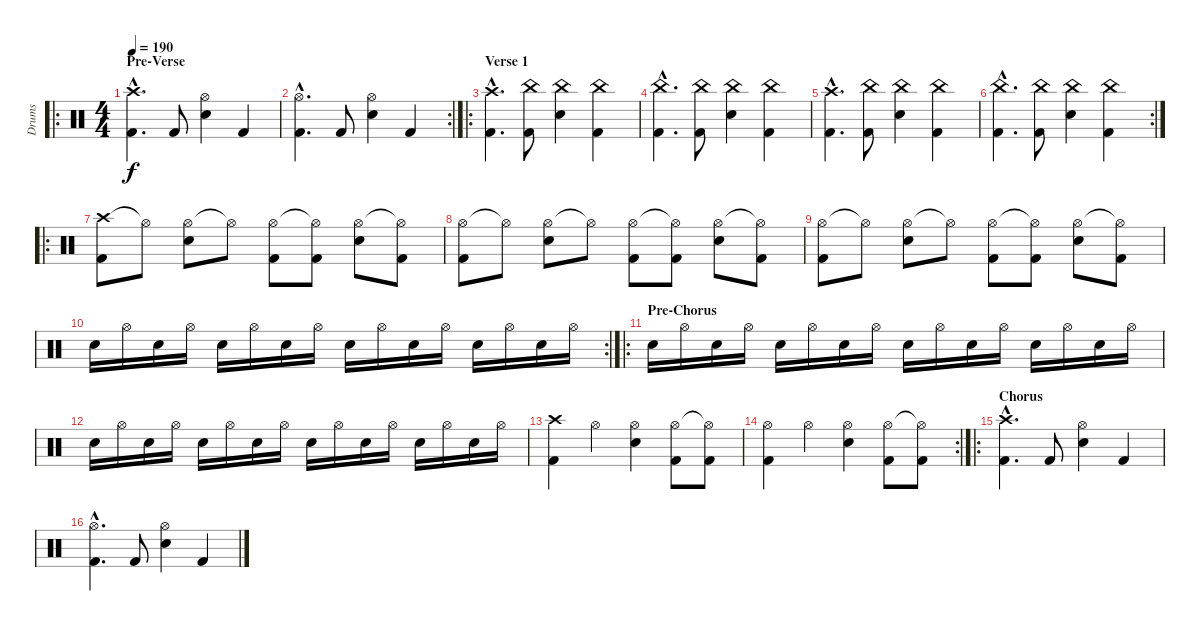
\track ("Drums" "Drums") {instrument percussion}
\staff {score}
\articulation defaults
\ro
\ts (4 4)
\section ("" "Pre-Verse")
\tempo 190
\clef neutral
\ks c
("Crash high (hit)"{hac} "Kick (hit) 2"{hac}).4{d dy f} "Kick (hit) 2".8 ("Electric Snare (hit)" "Hi-Hat (open)").4 "Kick (hit) 2".4 |
\rc 2
("Hi-Hat (open)"{hac} "Kick (hit) 2"{hac}).4{d} "Kick (hit) 2".8 ("Electric Snare (hit)" "Hi-Hat (open)").4 "Kick (hit) 2".4 |
\ro
\section ("" "Verse 1")
("Crash high (hit)"{hac} "Kick (hit) 2"{hac}).4{d} ("Kick (hit) 2" "China (hit)").8 ("Electric Snare (hit)" "China (hit)").4 ("Kick (hit) 2" "China (hit)").4 |
("China (hit)"{hac} "Kick (hit) 2"{hac}).4{d} ("Kick (hit) 2" "China (hit)").8 ("Electric Snare (hit)" "China (hit)").4 ("Kick (hit) 2" "China (hit)").4 |
("Crash high (hit)"{hac} "Kick (hit) 2"{hac}).4{d} ("Kick (hit) 2" "China (hit)").8 ("Electric Snare (hit)" "China (hit)").4 ("Kick (hit) 2" "China (hit)").4 |
\rc 2
("China (hit)"{hac} "Kick (hit) 2"{hac}).4{d} ("Kick (hit) 2" "China (hit)").8 ("Electric Snare (hit)" "China (hit)").4 ("Kick (hit) 2" "China (hit)").4 |
\ro
("Crash high (hit)" "Kick (hit) 2").8 "Hi-Hat (open)"{t}.8 ("Hi-Hat (open)" "Electric Snare (hit)").8 "Hi-Hat (open)"{t}.8 ("Hi-Hat (open)" "Kick (hit) 2").8 ("Hi-Hat (open)"{t} "Kick (hit) 2").8 ("Hi-Hat (open)" "Electric Snare (hit)").8 ("Hi-Hat (open)"{t} "Kick (hit) 2").8 |
("Hi-Hat (open)" "Kick (hit) 2").8 "Hi-Hat (open)"{t}.8 ("Hi-Hat (open)" "Electric Snare (hit)").8 "Hi-Hat (open)"{t}.8 ("Hi-Hat (open)" "Kick (hit) 2").8 ("Hi-Hat (open)"{t} "Kick (hit) 2").8 ("Hi-Hat (open)" "Electric Snare (hit)").8 ("Hi-Hat (open)"{t} "Kick (hit) 2").8 |
("Hi-Hat (open)" "Kick (hit) 2").8 "Hi-Hat (open)"{t}.8 ("Hi-Hat (open)" "Electric Snare (hit)").8 "Hi-Hat (open)"{t}.8 ("Hi-Hat (open)" "Kick (hit) 2").8 ("Hi-Hat (open)"{t} "Kick (hit) 2").8 ("Hi-Hat (open)" "Electric Snare (hit)").8 ("Hi-Hat (open)"{t} "Kick (hit) 2").8 |
\rc 2 "Electric Snare (hit)".16 "Hi-Hat (open)".16 "Electric Snare (hit)".16 "Hi-Hat (open)".16 "Electric Snare (hit)".16 "Hi-Hat (open)".16 "Electric Snare (hit)".16 "Hi-Hat (open)".16 "Electric Snare (hit)".16 "Hi-Hat (open)".16 "Electric Snare (hit)".16 "Hi-Hat (open)".16 "Electric Snare (hit)".16 "Hi-Hat (open)".16 "Electric Snare (hit)".16 "Hi-Hat (open)".16
|
\ro
\section ("" "Pre-Chorus")
"Electric Snare (hit)".16 "Hi-Hat (open)".16 "Electric Snare (hit)".16 "Hi-Hat (open)".16 "Electric Snare (hit)".16 "Hi-Hat (open)".16 "Electric Snare (hit)".16 "Hi-Hat (open)".16 "Electric Snare (hit)".16 "Hi-Hat (open)".16 "Electric Snare (hit)".16 "Hi-Hat (open)".16 "Electric Snare (hit)".16 "Hi-Hat (open)".16 "Electric Snare (hit)".16 "Hi-Hat (open)".16 |
"Electric Snare (hit)".16 "Hi-Hat (open)".16 "Electric Snare (hit)".16 "Hi-Hat (open)".16 "Electric Snare (hit)".16 "Hi-Hat (open)".16 "Electric Snare (hit)".16 "Hi-Hat (open)".16 "Electric Snare (hit)".16 "Hi-Hat (open)".16 "Electric Snare (hit)".16 "Hi-Hat (open)".16 "Electric Snare (hit)".16 "Hi-Hat (open)".16 "Electric Snare (hit)".16 "Hi-Hat (open)".16 |
("Crash high (hit)" "Kick (hit) 2").4 "Hi-Hat (open)".4 ("Hi-Hat (open)" "Electric Snare (hit)").4 ("Hi-Hat (open)" "Kick (hit) 2").8 ("Hi-Hat (open)"{t} "Kick (hit) 2").8 |
\rc 2
("Hi-Hat (open)" "Kick (hit) 2").4 "Hi-Hat (open)".4 ("Hi-Hat (open)" "Electric Snare (hit)").4 ("Hi-Hat (open)" "Kick (hit) 2").8 ("Hi-Hat (open)"{t} "Kick (hit) 2").8 |
\ro
\section ("" "Chorus")
("Crash high (hit)"{hac} "Kick (hit) 2"{hac}).4{d} "Kick (hit) 2".8 ("Electric Snare (hit)" "Hi-Hat (open)").4 "Kick (hit) 2".4 |
("Hi-Hat (open)"{hac} "Kick (hit) 2"{hac}).4{d} "Kick (hit) 2".8 ("Electric Snare (hit)" "Hi-Hat (open)").4 "Kick (hit) 2".4
